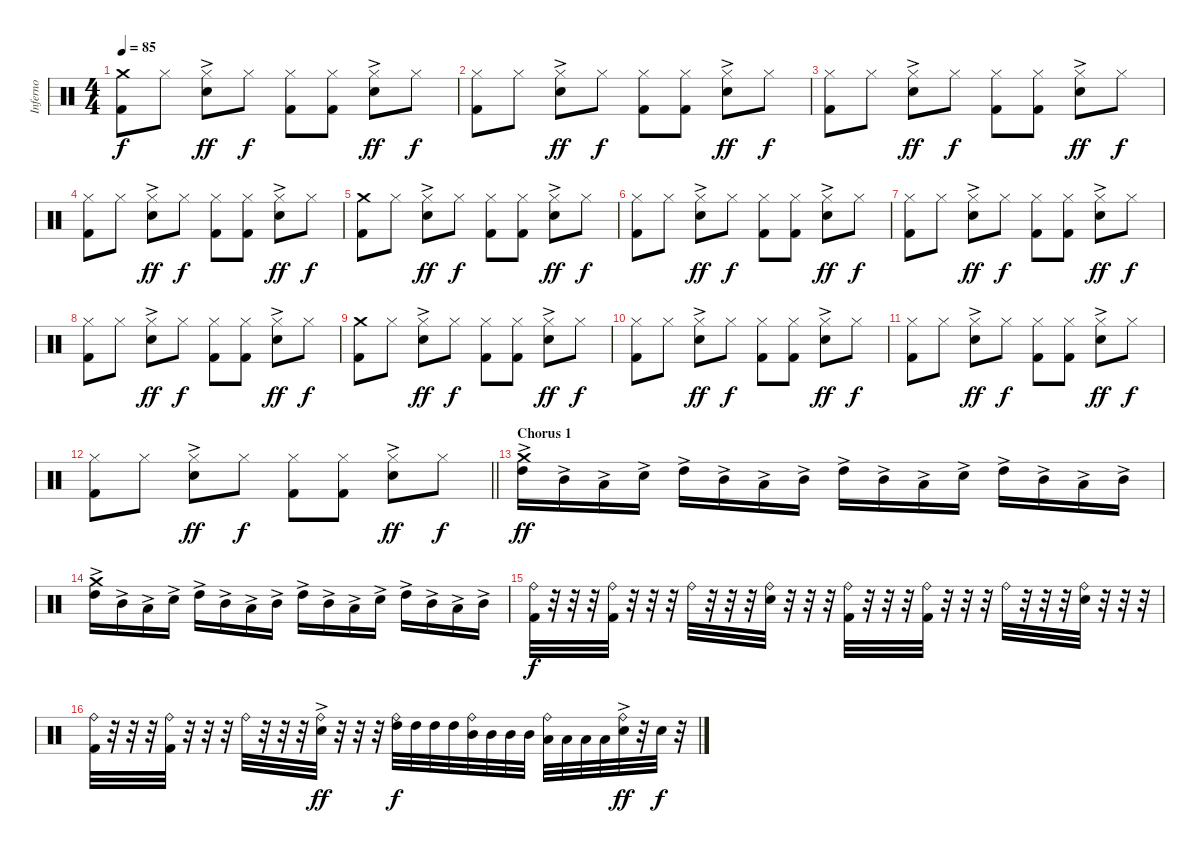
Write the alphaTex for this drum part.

\track ("Inferno" "Inferno") {instrument percussion}
\staff {score}
\articulation defaults
\ts (4 4)
\tempo 85
\clef neutral
\ks c
("Crash medium (hit)" "Kick (hit) 2").8{dy f} "Hi-Hat (closed)".8 ("Hi-Hat (closed)" "Electric Snare (hit)"{ac}).8{dy ff} "Hi-Hat (closed)".8{dy f} ("Hi-Hat (closed)" "Kick (hit) 2").8 ("Hi-Hat (closed)" "Kick (hit) 2").8 ("Hi-Hat (closed)" "Electric Snare (hit)"{ac}).8{dy ff} "Hi-Hat (closed)".8{dy f} |
("Hi-Hat (closed)" "Kick (hit) 2").8 "Hi-Hat (closed)".8 ("Hi-Hat (closed)" "Electric Snare (hit)"{ac}).8{dy ff} "Hi-Hat (closed)".8{dy f} ("Hi-Hat (closed)" "Kick (hit) 2").8 ("Hi-Hat (closed)" "Kick (hit) 2").8 ("Hi-Hat (closed)" "Electric Snare (hit)"{ac}).8{dy ff} "Hi-Hat (closed)".8{dy f} |
("Hi-Hat (closed)" "Kick (hit) 2").8 "Hi-Hat (closed)".8 ("Hi-Hat (closed)" "Electric Snare (hit)"{ac}).8{dy ff} "Hi-Hat (closed)".8{dy f} ("Hi-Hat (closed)" "Kick (hit) 2").8 ("Hi-Hat (closed)" "Kick (hit) 2").8 ("Hi-Hat (closed)" "Electric Snare (hit)"{ac}).8{dy ff} "Hi-Hat (closed)".8{dy f} |
("Hi-Hat (closed)" "Kick (hit) 2").8 "Hi-Hat (closed)".8 ("Hi-Hat (closed)" "Electric Snare (hit)"{ac}).8{dy ff} "Hi-Hat (closed)".8{dy f} ("Hi-Hat (closed)" "Kick (hit) 2").8 ("Hi-Hat (closed)" "Kick (hit) 2").8 ("Hi-Hat (closed)" "Electric Snare (hit)"{ac}).8{dy ff} "Hi-Hat (closed)".8{dy f} |
("Crash medium (hit)" "Kick (hit) 2").8 "Hi-Hat (closed)".8 ("Hi-Hat (closed)" "Electric Snare (hit)"{ac}).8{dy ff} "Hi-Hat (closed)".8{dy f} ("Hi-Hat (closed)" "Kick (hit) 2").8 ("Hi-Hat (closed)" "Kick (hit) 2").8 ("Hi-Hat (closed)" "Electric Snare (hit)"{ac}).8{dy ff} "Hi-Hat (closed)".8{dy f} |
("Hi-Hat (closed)" "Kick (hit) 2").8 "Hi-Hat (closed)".8 ("Hi-Hat (closed)" "Electric Snare (hit)"{ac}).8{dy ff} "Hi-Hat (closed)".8{dy f} ("Hi-Hat (closed)" "Kick (hit) 2").8 ("Hi-Hat (closed)" "Kick (hit) 2").8 ("Hi-Hat (closed)" "Electric Snare (hit)"{ac}).8{dy ff} "Hi-Hat (closed)".8{dy f} |
("Hi-Hat (closed)" "Kick (hit) 2").8 "Hi-Hat (closed)".8 ("Hi-Hat (closed)" "Electric Snare (hit)"{ac}).8{dy ff} "Hi-Hat (closed)".8{dy f} ("Hi-Hat (closed)" "Kick (hit) 2").8 ("Hi-Hat (closed)" "Kick (hit) 2").8 ("Hi-Hat (closed)" "Electric Snare (hit)"{ac}).8{dy ff} "Hi-Hat (closed)".8{dy f} |
("Hi-Hat (closed)" "Kick (hit) 2").8 "Hi-Hat (closed)".8 ("Hi-Hat (closed)" "Electric Snare (hit)"{ac}).8{dy ff} "Hi-Hat (closed)".8{dy f} ("Hi-Hat (closed)" "Kick (hit) 2").8 ("Hi-Hat (closed)" "Kick (hit) 2").8 ("Hi-Hat (closed)" "Electric Snare (hit)"{ac}).8{dy ff} "Hi-Hat (closed)".8{dy f} |
("Crash medium (hit)" "Kick (hit) 2").8 "Hi-Hat (closed)".8 ("Hi-Hat (closed)" "Electric Snare (hit)"{ac}).8{dy ff} "Hi-Hat (closed)".8{dy f} ("Hi-Hat (closed)" "Kick (hit) 2").8 ("Hi-Hat (closed)" "Kick (hit) 2").8 ("Hi-Hat (closed)" "Electric Snare (hit)"{ac}).8{dy ff} "Hi-Hat (closed)".8{dy f} |
("Hi-Hat (closed)" "Kick (hit) 2").8 "Hi-Hat (closed)".8 ("Hi-Hat (closed)" "Electric Snare (hit)"{ac}).8{dy ff} "Hi-Hat (closed)".8{dy f} ("Hi-Hat (closed)" "Kick (hit) 2").8 ("Hi-Hat (closed)" "Kick (hit) 2").8 ("Hi-Hat (closed)" "Electric Snare (hit)"{ac}).8{dy ff} "Hi-Hat (closed)".8{dy f} |
("Hi-Hat (closed)" "Kick (hit) 2").8 "Hi-Hat (closed)".8 ("Hi-Hat (closed)" "Electric Snare (hit)"{ac}).8{dy ff} "Hi-Hat (closed)".8{dy f} ("Hi-Hat (closed)" "Kick (hit) 2").8 ("Hi-Hat (closed)" "Kick (hit) 2").8 ("Hi-Hat (closed)" "Electric Snare (hit)"{ac}).8{dy ff} "Hi-Hat (closed)".8{dy f} |
\barLineRight lightlight
("Hi-Hat (closed)" "Kick (hit) 2").8 "Hi-Hat (closed)".8 ("Hi-Hat (closed)" "Electric Snare (hit)"{ac}).8{dy ff} "Hi-Hat (closed)".8{dy f} ("Hi-Hat (closed)" "Kick (hit) 2").8 ("Hi-Hat (closed)" "Kick (hit) 2").8 ("Hi-Hat (closed)" "Electric Snare (hit)"{ac}).8{dy ff} "Hi-Hat (closed)".8{dy f} |
\section ("" "Chorus 1")
("High Tom (hit)"{ac} "Crash medium (hit)").16{dy ff} "Mid Tom (hit)"{ac}.16 "Low Tom (hit)"{ac}.16 "Electric Snare (hit)"{ac}.16 "High Tom (hit)"{ac}.16 "Mid Tom (hit)"{ac}.16 "Low Tom (hit)"{ac}.16 "Mid Tom (hit)"{ac}.16 "High Tom (hit)"{ac}.16 "Mid Tom (hit)"{ac}.16 "Low Tom (hit)"{ac}.16 "Electric Snare (hit)"{ac}.16 "High Tom (hit)"{ac}.16 "Mid Tom (hit)"{ac}.16 "Low Tom (hit)"{ac}.16 "Mid Tom (hit)"{ac}.16 |
("High Tom (hit)"{ac} "Crash medium (hit)").16 "Mid Tom (hit)"{ac}.16 "Low Tom (hit)"{ac}.16 "Electric Snare (hit)"{ac}.16 "High Tom (hit)"{ac}.16 "Mid Tom (hit)"{ac}.16 "Low Tom (hit)"{ac}.16 "Mid Tom (hit)"{ac}.16 "High Tom (hit)"{ac}.16 "Mid Tom (hit)"{ac}.16 "Low Tom (hit)"{ac}.16 "Electric Snare (hit)"{ac}.16 "High Tom (hit)"{ac}.16 "Mid Tom (hit)"{ac}.16 "Low Tom (hit)"{ac}.16 "Mid Tom (hit)"{ac}.16 |
("Kick (hit) 2" "Ride (bell)").32{dy f} r.32 r.32 r.32 ("Kick (hit) 2" "Ride (bell)").32 r.32 r.32 r.32 "Ride (bell)".32 r.32 r.32 r.32 ("Electric Snare (hit)" "Ride (bell)").32 r.32 r.32 r.32 ("Kick (hit) 2" "Ride (bell)").32 r.32 r.32 r.32 ("Kick (hit) 2" "Ride (bell)").32 r.32 r.32 r.32 "Ride (bell)".32 r.32 r.32 r.32 ("Electric Snare (hit)" "Ride (bell)").32 r.32 r.32 r.32 |
("Kick (hit) 2" "Ride (bell)").32 r.32 r.32 r.32 ("Kick (hit) 2" "Ride (bell)").32 r.32 r.32 r.32 "Ride (bell)".32 r.32 r.32 r.32 ("Electric Snare (hit)"{ac} "Ride (bell)").32{dy ff} r.32 r.32 r.32 ("High Tom (hit)" "Ride (bell)").32{dy f} "High Tom (hit)".32 "High Tom (hit)".32 "High Tom (hit)".32 ("Mid Tom (hit)" "Ride (bell)").32 "Mid Tom (hit)".32 "Mid Tom (hit)".32 "Mid Tom (hit)".32 ("Low Tom (hit)" "Ride (bell)").32 "Low Tom (hit)".32 "Low Tom (hit)".32 "Low Tom (hit)".32 ("Electric Snare (hit)"{ac} "Ride (bell)").32{dy ff} r.32 "Electric Snare (hit)".32{dy f} r.32
